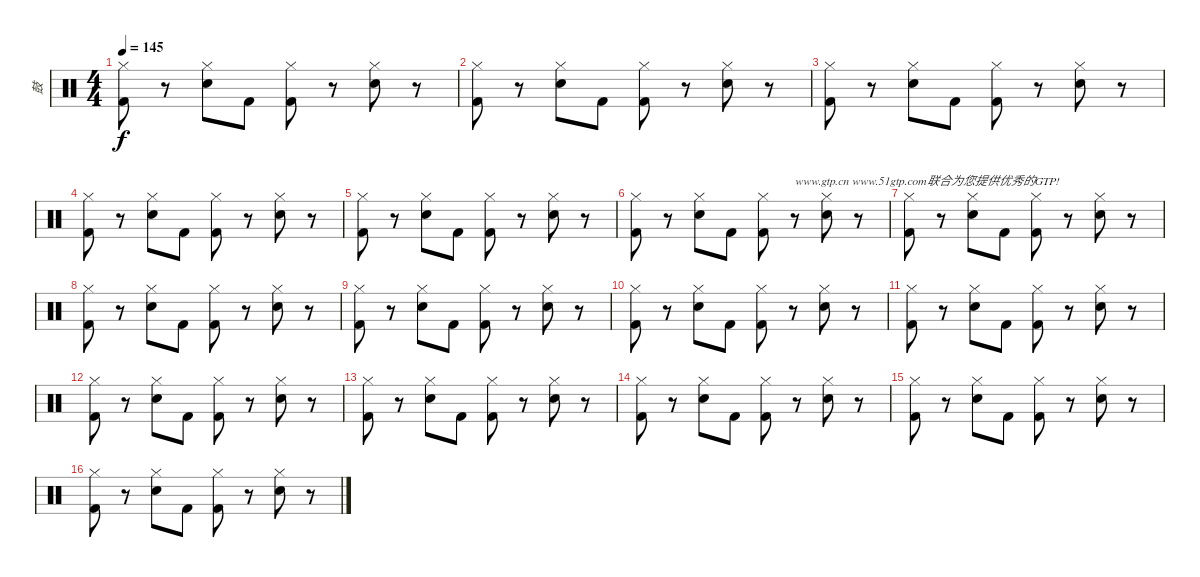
\track ("鼓" "鼓") {instrument percussion}
\staff {score}
\articulation defaults
\ts (4 4)
\tempo 145
\clef neutral
\ks c
("Kick (hit) 2" "Hi-Hat (closed)").8{dy f} r.8 ("Snare (hit) 2" "Hi-Hat (closed)").8 "Kick (hit) 2".8 ("Kick (hit) 2" "Hi-Hat (closed)").8 r.8 ("Snare (hit) 2" "Hi-Hat (closed)").8 r.8 |
("Kick (hit) 2" "Hi-Hat (closed)").8 r.8 ("Snare (hit) 2" "Hi-Hat (closed)").8 "Kick (hit) 2".8 ("Kick (hit) 2" "Hi-Hat (closed)").8 r.8 ("Snare (hit) 2" "Hi-Hat (closed)").8 r.8 |
("Kick (hit) 2" "Hi-Hat (closed)").8 r.8 ("Snare (hit) 2" "Hi-Hat (closed)").8 "Kick (hit) 2".8 ("Kick (hit) 2" "Hi-Hat (closed)").8 r.8 ("Snare (hit) 2" "Hi-Hat (closed)").8 r.8 |
("Kick (hit) 2" "Hi-Hat (closed)").8 r.8 ("Snare (hit) 2" "Hi-Hat (closed)").8 "Kick (hit) 2".8 ("Kick (hit) 2" "Hi-Hat (closed)").8 r.8 ("Snare (hit) 2" "Hi-Hat (closed)").8 r.8 |
("Kick (hit) 2" "Hi-Hat (closed)").8 r.8 ("Snare (hit) 2" "Hi-Hat (closed)").8 "Kick (hit) 2".8 ("Kick (hit) 2" "Hi-Hat (closed)").8 r.8 ("Snare (hit) 2" "Hi-Hat (closed)").8 r.8 |
("Kick (hit) 2" "Hi-Hat (closed)").8 r.8 ("Snare (hit) 2" "Hi-Hat (closed)").8 "Kick (hit) 2".8 ("Kick (hit) 2" "Hi-Hat (closed)").8 r.8{txt "www.gtp.cn www.51gtp.com联合为您提供优秀的GTP!"} ("Snare (hit) 2" "Hi-Hat (closed)").8 r.8 |
("Kick (hit) 2" "Hi-Hat (closed)").8 r.8 ("Snare (hit) 2" "Hi-Hat (closed)").8 "Kick (hit) 2".8 ("Kick (hit) 2" "Hi-Hat (closed)").8 r.8 ("Snare (hit) 2" "Hi-Hat (closed)").8 r.8 |
("Kick (hit) 2" "Hi-Hat (closed)").8 r.8 ("Snare (hit) 2" "Hi-Hat (closed)").8 "Kick (hit) 2".8 ("Kick (hit) 2" "Hi-Hat (closed)").8 r.8 ("Snare (hit) 2" "Hi-Hat (closed)").8 r.8 |
("Kick (hit) 2" "Hi-Hat (closed)").8 r.8 ("Snare (hit) 2" "Hi-Hat (closed)").8 "Kick (hit) 2".8 ("Kick (hit) 2" "Hi-Hat (closed)").8 r.8 ("Snare (hit) 2" "Hi-Hat (closed)").8 r.8 |
("Kick (hit) 2" "Hi-Hat (closed)").8 r.8 ("Snare (hit) 2" "Hi-Hat (closed)").8 "Kick (hit) 2".8 ("Kick (hit) 2" "Hi-Hat (closed)").8 r.8 ("Snare (hit) 2" "Hi-Hat (closed)").8 r.8 |
("Kick (hit) 2" "Hi-Hat (closed)").8 r.8 ("Snare (hit) 2" "Hi-Hat (closed)").8 "Kick (hit) 2".8 ("Kick (hit) 2" "Hi-Hat (closed)").8 r.8 ("Snare (hit) 2" "Hi-Hat (closed)").8 r.8 |
("Kick (hit) 2" "Hi-Hat (closed)").8 r.8 ("Snare (hit) 2" "Hi-Hat (closed)").8 "Kick (hit) 2".8 ("Kick (hit) 2" "Hi-Hat (closed)").8 r.8 ("Snare (hit) 2" "Hi-Hat (closed)").8 r.8 |
("Kick (hit) 2" "Hi-Hat (closed)").8 r.8 ("Snare (hit) 2" "Hi-Hat (closed)").8 "Kick (hit) 2".8 ("Kick (hit) 2" "Hi-Hat (closed)").8 r.8 ("Snare (hit) 2" "Hi-Hat (closed)").8 r.8 |
("Kick (hit) 2" "Hi-Hat (closed)").8 r.8 ("Snare (hit) 2" "Hi-Hat (closed)").8 "Kick (hit) 2".8 ("Kick (hit) 2" "Hi-Hat (closed)").8 r.8 ("Snare (hit) 2" "Hi-Hat (closed)").8 r.8 |
("Kick (hit) 2" "Hi-Hat (closed)").8 r.8 ("Snare (hit) 2" "Hi-Hat (closed)").8 "Kick (hit) 2".8 ("Kick (hit) 2" "Hi-Hat (closed)").8 r.8 ("Snare (hit) 2" "Hi-Hat (closed)").8 r.8 |
("Kick (hit) 2" "Hi-Hat (closed)").8 r.8 ("Snare (hit) 2" "Hi-Hat (closed)").8 "Kick (hit) 2".8 ("Kick (hit) 2" "Hi-Hat (closed)").8 r.8 ("Snare (hit) 2" "Hi-Hat (closed)").8 r.8
